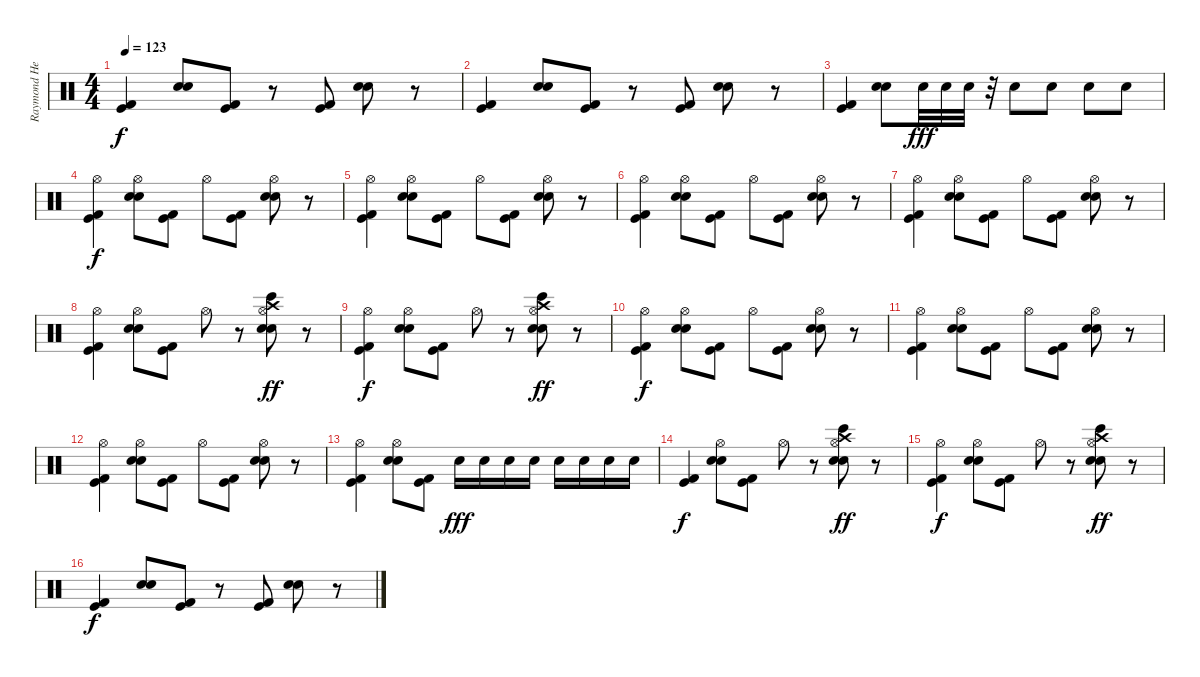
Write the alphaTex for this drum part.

\track ("Raymond Herrera" "Raymond He") {instrument percussion}
\staff {score}
\articulation defaults
\ts (4 4)
\tempo 123
\clef neutral
\ks c
("Kick (hit)" "Kick (hit) 2").4{dy f} ("Electric Snare (hit)" "Electric Snare (hit)").8 ("Kick (hit)" "Kick (hit) 2").8 r.8 ("Kick (hit) 2" "Kick (hit)").8 ("Electric Snare (hit)" "Electric Snare (hit)").8 r.8 |
("Kick (hit)" "Kick (hit) 2").4 ("Electric Snare (hit)" "Electric Snare (hit)").8 ("Kick (hit)" "Kick (hit) 2").8 r.8 ("Kick (hit) 2" "Kick (hit)").8 ("Electric Snare (hit)" "Electric Snare (hit)").8 r.8 |
("Kick (hit)" "Kick (hit) 2").4 ("Electric Snare (hit)" "Electric Snare (hit)").8 "Electric Snare (hit)".32{dy fff} "Electric Snare (hit)".32 "Electric Snare (hit)".32 r.32 "Electric Snare (hit)".8 "Electric Snare (hit)".8 "Electric Snare (hit)".8 "Electric Snare (hit)".8 |
("Hi-Hat (open)" "Kick (hit)" "Kick (hit) 2").4{dy f} ("Hi-Hat (open)" "Electric Snare (hit)" "Electric Snare (hit)").8 ("Kick (hit)" "Kick (hit) 2").8 "Hi-Hat (open)".8 ("Kick (hit) 2" "Kick (hit)").8 ("Hi-Hat (open)" "Electric Snare (hit)" "Electric Snare (hit)").8 r.8 |
("Hi-Hat (open)" "Kick (hit)" "Kick (hit) 2").4 ("Hi-Hat (open)" "Electric Snare (hit)" "Electric Snare (hit)").8 ("Kick (hit)" "Kick (hit) 2").8 "Hi-Hat (open)".8 ("Kick (hit) 2" "Kick (hit)").8 ("Hi-Hat (open)" "Electric Snare (hit)" "Electric Snare (hit)").8 r.8 |
("Hi-Hat (open)" "Kick (hit)" "Kick (hit) 2").4 ("Hi-Hat (open)" "Electric Snare (hit)" "Electric Snare (hit)").8 ("Kick (hit)" "Kick (hit) 2").8 "Hi-Hat (open)".8 ("Kick (hit) 2" "Kick (hit)").8 ("Hi-Hat (open)" "Electric Snare (hit)" "Electric Snare (hit)").8 r.8 |
("Hi-Hat (open)" "Kick (hit)" "Kick (hit) 2").4 ("Hi-Hat (open)" "Electric Snare (hit)" "Electric Snare (hit)").8 ("Kick (hit)" "Kick (hit) 2").8 "Hi-Hat (open)".8 ("Kick (hit) 2" "Kick (hit)").8 ("Hi-Hat (open)" "Electric Snare (hit)" "Electric Snare (hit)").8 r.8 |
("Hi-Hat (open)" "Kick (hit)" "Kick (hit) 2").4 ("Hi-Hat (open)" "Electric Snare (hit)" "Electric Snare (hit)").8 ("Kick (hit)" "Kick (hit) 2").8 "Hi-Hat (open)".8 r.8 ("Hi-Hat (open)" "Crash high (hit)" "Electric Snare (hit)" "Electric Snare (hit)" "Bongo High (hit)").8{dy ff} r.8 |
("Hi-Hat (open)" "Kick (hit)" "Kick (hit) 2").4{dy f} ("Hi-Hat (open)" "Electric Snare (hit)" "Electric Snare (hit)").8 ("Kick (hit)" "Kick (hit) 2").8 "Hi-Hat (open)".8 r.8 ("Hi-Hat (open)" "Crash high (hit)" "Electric Snare (hit)" "Electric Snare (hit)" "Bongo High (hit)").8{dy ff} r.8 |
("Hi-Hat (open)" "Kick (hit)" "Kick (hit) 2").4{dy f} ("Hi-Hat (open)" "Electric Snare (hit)" "Electric Snare (hit)").8 ("Kick (hit)" "Kick (hit) 2").8 "Hi-Hat (open)".8 ("Kick (hit) 2" "Kick (hit)").8 ("Hi-Hat (open)" "Electric Snare (hit)" "Electric Snare (hit)").8 r.8 |
("Hi-Hat (open)" "Kick (hit)" "Kick (hit) 2").4 ("Hi-Hat (open)" "Electric Snare (hit)" "Electric Snare (hit)").8 ("Kick (hit)" "Kick (hit) 2").8 "Hi-Hat (open)".8 ("Kick (hit) 2" "Kick (hit)").8 ("Hi-Hat (open)" "Electric Snare (hit)" "Electric Snare (hit)").8 r.8 |
("Hi-Hat (open)" "Kick (hit)" "Kick (hit) 2").4 ("Hi-Hat (open)" "Electric Snare (hit)" "Electric Snare (hit)").8 ("Kick (hit)" "Kick (hit) 2").8 "Hi-Hat (open)".8 ("Kick (hit) 2" "Kick (hit)").8 ("Hi-Hat (open)" "Electric Snare (hit)" "Electric Snare (hit)").8 r.8 |
("Hi-Hat (open)" "Kick (hit)" "Kick (hit) 2").4 ("Hi-Hat (open)" "Electric Snare (hit)" "Electric Snare (hit)").8 ("Kick (hit)" "Kick (hit) 2").8 "Electric Snare (hit)".16{dy fff} "Electric Snare (hit)".16 "Electric Snare (hit)".16 "Electric Snare (hit)".16 "Electric Snare (hit)".16 "Electric Snare (hit)".16 "Electric Snare (hit)".16 "Electric Snare (hit)".16 |
("Kick (hit)" "Kick (hit) 2").4{dy f} ("Hi-Hat (open)" "Electric Snare (hit)" "Electric Snare (hit)").8 ("Kick (hit)" "Kick (hit) 2").8 "Hi-Hat (open)".8 r.8 ("Hi-Hat (open)" "Crash high (hit)" "Electric Snare (hit)" "Electric Snare (hit)" "Bongo High (hit)").8{dy ff} r.8 |
("Hi-Hat (open)" "Kick (hit)" "Kick (hit) 2").4{dy f} ("Hi-Hat (open)" "Electric Snare (hit)" "Electric Snare (hit)").8 ("Kick (hit)" "Kick (hit) 2").8 "Hi-Hat (open)".8 r.8 ("Hi-Hat (open)" "Crash high (hit)" "Electric Snare (hit)" "Electric Snare (hit)" "Bongo High (hit)").8{dy ff} r.8 |
("Kick (hit)" "Kick (hit) 2").4{dy f} ("Electric Snare (hit)" "Electric Snare (hit)").8 ("Kick (hit)" "Kick (hit) 2").8 r.8 ("Kick (hit) 2" "Kick (hit)").8 ("Electric Snare (hit)" "Electric Snare (hit)").8 r.8
